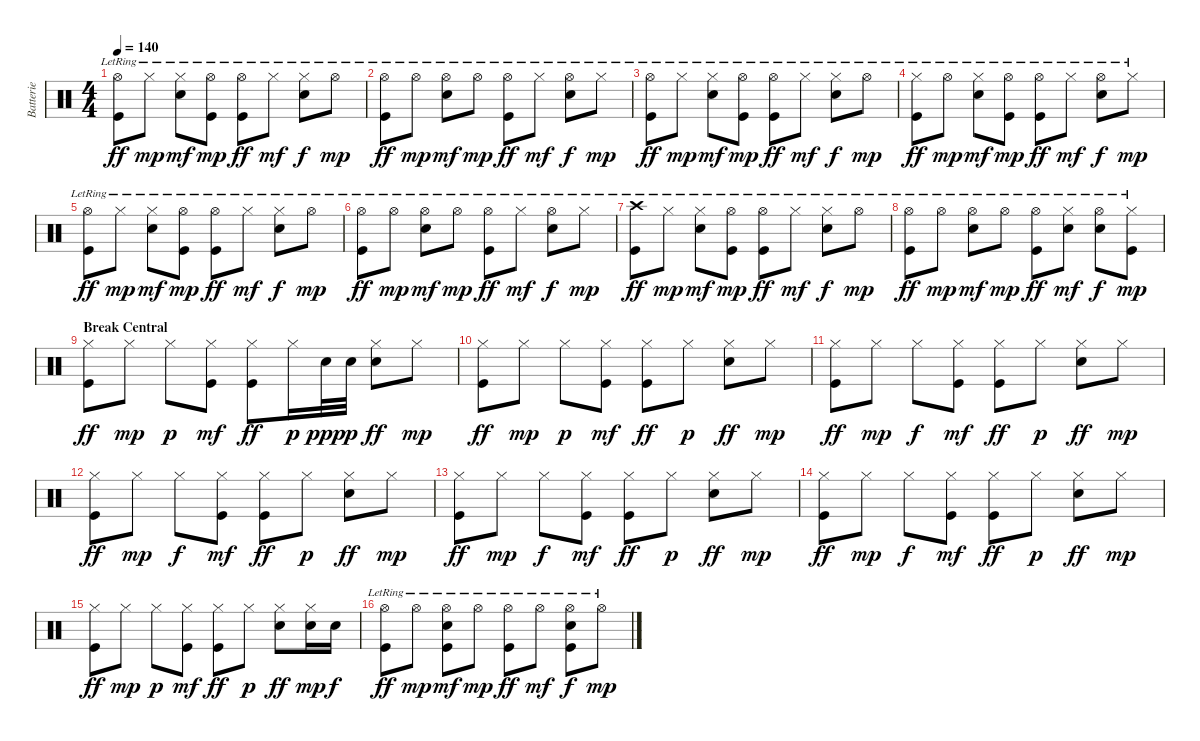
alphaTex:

\track ("Batterie" "Batterie") {instrument percussion}
\staff {score}
\articulation defaults
\ts (4 4)
\tempo 140
\clef neutral
\ks c
("Hi-Hat (open)" "Kick (hit)"{lr}).8{dy ff} "Hi-Hat (closed)"{lr}.8{dy mp} ("Hi-Hat (closed)"{lr} "Snare (hit) 2"{lr}).8{dy mf} ("Hi-Hat (open)"{lr} "Kick (hit)").8{dy mp} ("Hi-Hat (open)"{lr} "Kick (hit)"{lr}).8{dy ff} "Hi-Hat (closed)"{lr}.8{dy mf} ("Hi-Hat (closed)"{lr} "Snare (hit) 2"{lr}).8{dy f} "Hi-Hat (open)"{lr}.8{dy mp} |
("Hi-Hat (open)"{lr} "Kick (hit)"{lr}).8{dy ff} "Hi-Hat (open)"{lr}.8{dy mp} ("Hi-Hat (open)"{lr} "Snare (hit) 2"{lr}).8{dy mf} "Hi-Hat (open)"{lr}.8{dy mp} ("Hi-Hat (open)"{lr} "Kick (hit)"{lr}).8{dy ff} "Hi-Hat (closed)"{lr}.8{dy mf} ("Hi-Hat (open)"{lr} "Snare (hit) 2"{lr}).8{dy f} "Hi-Hat (closed)"{lr}.8{dy mp} |
("Hi-Hat (open)" "Kick (hit)"{lr}).8{dy ff} "Hi-Hat (closed)"{lr}.8{dy mp} ("Hi-Hat (closed)"{lr} "Snare (hit) 2"{lr}).8{dy mf} ("Hi-Hat (open)"{lr} "Kick (hit)").8{dy mp} ("Hi-Hat (open)"{lr} "Kick (hit)"{lr}).8{dy ff} "Hi-Hat (closed)"{lr}.8{dy mf} ("Hi-Hat (closed)"{lr} "Snare (hit) 2"{lr}).8{dy f} "Hi-Hat (open)"{lr}.8{dy mp} |
("Hi-Hat (closed)"{lr} "Kick (hit)"{lr}).8{dy ff} "Hi-Hat (open)"{lr}.8{dy mp} ("Hi-Hat (closed)"{lr} "Snare (hit) 2"{lr}).8{dy mf} ("Hi-Hat (open)"{lr} "Kick (hit)").8{dy mp} ("Hi-Hat (open)"{lr} "Kick (hit)"{lr}).8{dy ff} "Hi-Hat (closed)"{lr}.8{dy mf} ("Hi-Hat (open)"{lr} "Snare (hit) 2"{lr}).8{dy f} "Hi-Hat (closed)"{lr}.8{dy mp} |
("Hi-Hat (open)" "Kick (hit)"{lr}).8{dy ff} "Hi-Hat (closed)"{lr}.8{dy mp} ("Hi-Hat (closed)"{lr} "Snare (hit) 2"{lr}).8{dy mf} ("Hi-Hat (open)"{lr} "Kick (hit)").8{dy mp} ("Hi-Hat (open)"{lr} "Kick (hit)"{lr}).8{dy ff} "Hi-Hat (closed)"{lr}.8{dy mf} ("Hi-Hat (closed)"{lr} "Snare (hit) 2"{lr}).8{dy f} "Hi-Hat (open)"{lr}.8{dy mp} |
("Hi-Hat (open)"{lr} "Kick (hit)"{lr}).8{dy ff} "Hi-Hat (open)"{lr}.8{dy mp} ("Hi-Hat (open)"{lr} "Snare (hit) 2"{lr}).8{dy mf} "Hi-Hat (open)"{lr}.8{dy mp} ("Hi-Hat (open)"{lr} "Kick (hit)"{lr}).8{dy ff} "Hi-Hat (closed)"{lr}.8{dy mf} ("Hi-Hat (open)"{lr} "Snare (hit) 2"{lr}).8{dy f} "Hi-Hat (closed)"{lr}.8{dy mp} |
("Crash high (hit)"{lr} "Kick (hit)"{lr}).8{dy ff} "Hi-Hat (closed)"{lr}.8{dy mp} ("Hi-Hat (closed)"{lr} "Snare (hit) 2"{lr}).8{dy mf} ("Hi-Hat (open)"{lr} "Kick (hit)").8{dy mp} ("Hi-Hat (open)"{lr} "Kick (hit)"{lr}).8{dy ff} "Hi-Hat (closed)"{lr}.8{dy mf} ("Hi-Hat (closed)"{lr} "Snare (hit) 2"{lr}).8{dy f} "Hi-Hat (open)"{lr}.8{dy mp} |
("Hi-Hat (open)"{lr} "Kick (hit)"{lr}).8{dy ff} "Hi-Hat (open)"{lr}.8{dy mp} ("Hi-Hat (open)"{lr} "Snare (hit) 2"{lr}).8{dy mf} "Hi-Hat (open)"{lr}.8{dy mp} ("Hi-Hat (open)"{lr} "Kick (hit)"{lr}).8{dy ff} ("Hi-Hat (closed)"{lr} "Snare (hit) 2").8{dy mf} ("Hi-Hat (open)"{lr} "Snare (hit) 2"{lr}).8{dy f} ("Hi-Hat (closed)"{lr} "Kick (hit)").8{dy mp} |
\section ("" "Break Central")
("Hi-Hat (closed)" "Kick (hit)").8{dy ff} "Hi-Hat (closed)".8{dy mp} "Hi-Hat (closed)".8{dy p} ("Hi-Hat (closed)" "Kick (hit)").8{dy mf} ("Hi-Hat (closed)" "Kick (hit)").8{dy ff} "Hi-Hat (closed)".16{dy p} "Snare (hit) 2".32{dy ppp} "Snare (hit) 2".32{dy p} ("Hi-Hat (closed)" "Snare (hit) 2").8{dy ff} "Hi-Hat (closed)".8{dy mp} |
("Hi-Hat (closed)" "Kick (hit)").8{dy ff} "Hi-Hat (closed)".8{dy mp} "Hi-Hat (closed)".8{dy p} ("Hi-Hat (closed)" "Kick (hit)").8{dy mf} ("Hi-Hat (closed)" "Kick (hit)").8{dy ff} "Hi-Hat (closed)".8{dy p} ("Hi-Hat (closed)" "Snare (hit) 2").8{dy ff} "Hi-Hat (closed)".8{dy mp} |
("Hi-Hat (closed)" "Kick (hit)").8{dy ff} "Hi-Hat (closed)".8{dy mp} "Hi-Hat (closed)".8{dy f} ("Hi-Hat (closed)" "Kick (hit)").8{dy mf} ("Hi-Hat (closed)" "Kick (hit)").8{dy ff} "Hi-Hat (closed)".8{dy p} ("Hi-Hat (closed)" "Snare (hit) 2").8{dy ff} "Hi-Hat (closed)".8{dy mp} |
("Hi-Hat (closed)" "Kick (hit)").8{dy ff} "Hi-Hat (closed)".8{dy mp} "Hi-Hat (closed)".8{dy f} ("Hi-Hat (closed)" "Kick (hit)").8{dy mf} ("Hi-Hat (closed)" "Kick (hit)").8{dy ff} "Hi-Hat (closed)".8{dy p} ("Hi-Hat (closed)" "Snare (hit) 2").8{dy ff} "Hi-Hat (closed)".8{dy mp} |
("Hi-Hat (closed)" "Kick (hit)").8{dy ff} "Hi-Hat (closed)".8{dy mp} "Hi-Hat (closed)".8{dy f} ("Hi-Hat (closed)" "Kick (hit)").8{dy mf} ("Hi-Hat (closed)" "Kick (hit)").8{dy ff} "Hi-Hat (closed)".8{dy p} ("Hi-Hat (closed)" "Snare (hit) 2").8{dy ff} "Hi-Hat (closed)".8{dy mp} |
("Hi-Hat (closed)" "Kick (hit)").8{dy ff} "Hi-Hat (closed)".8{dy mp} "Hi-Hat (closed)".8{dy f} ("Hi-Hat (closed)" "Kick (hit)").8{dy mf} ("Hi-Hat (closed)" "Kick (hit)").8{dy ff} "Hi-Hat (closed)".8{dy p} ("Hi-Hat (closed)" "Snare (hit) 2").8{dy ff} "Hi-Hat (closed)".8{dy mp} |
("Hi-Hat (closed)" "Kick (hit)").8{dy ff} "Hi-Hat (closed)".8{dy mp} "Hi-Hat (closed)".8{dy p} ("Hi-Hat (closed)" "Kick (hit)").8{dy mf} ("Hi-Hat (closed)" "Kick (hit)").8{dy ff} "Hi-Hat (closed)".8{dy p} ("Hi-Hat (closed)" "Snare (hit) 2").8{dy ff} ("Hi-Hat (closed)" "Snare (hit) 2").16{dy mp} "Snare (hit) 2".16{dy f} |
("Hi-Hat (open)"{lr} "Kick (hit)"{lr}).8{dy ff} "Hi-Hat (open)"{lr}.8{dy mp} ("Hi-Hat (open)"{lr} "Snare (hit) 2"{lr} "Kick (hit)").8{dy mf} "Hi-Hat (open)"{lr}.8{dy mp} ("Hi-Hat (open)"{lr} "Kick (hit)"{lr}).8{dy ff} "Hi-Hat (open)"{lr}.8{dy mf} ("Hi-Hat (open)"{lr} "Snare (hit) 2"{lr} "Kick (hit)").8{dy f} "Hi-Hat (open)"{lr}.8{dy mp}
